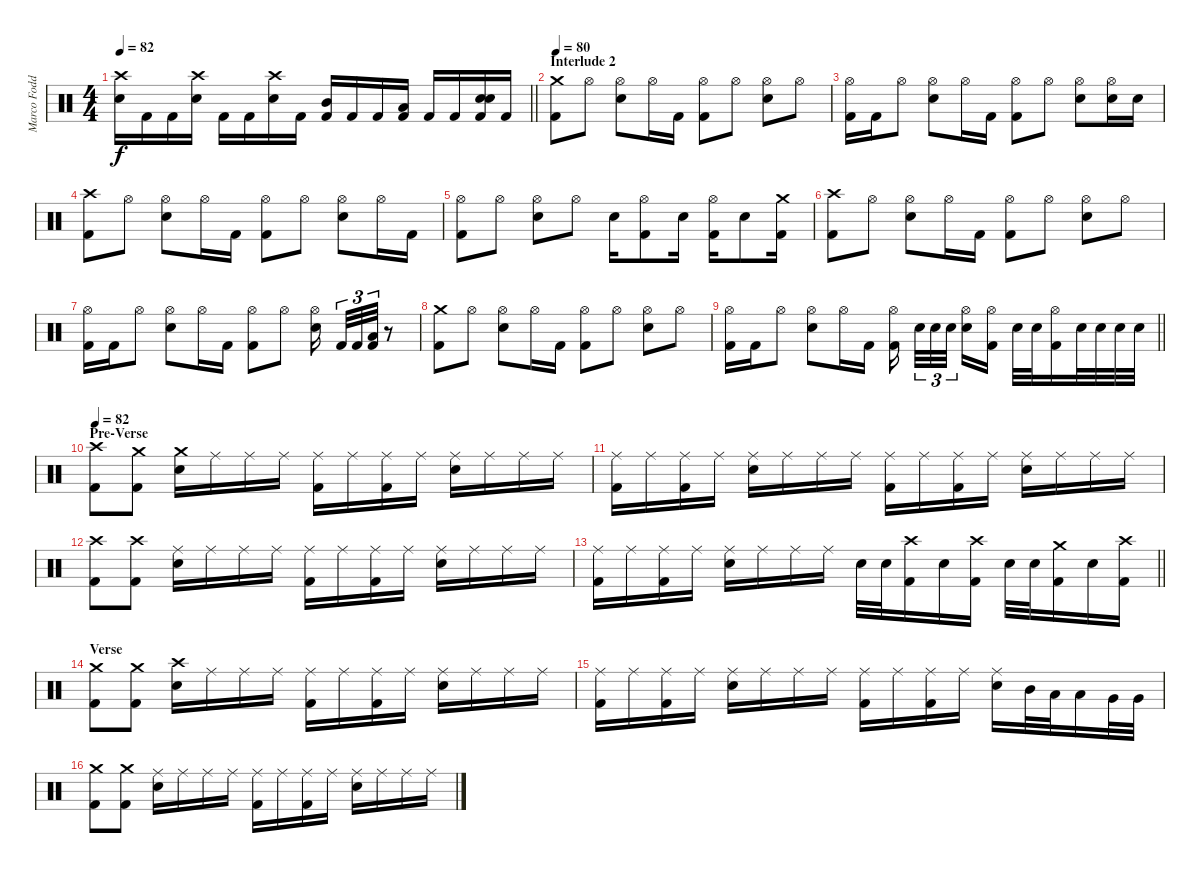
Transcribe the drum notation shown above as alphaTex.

\track ("Marco Foddis" "Marco Fodd") {instrument percussion}
\staff {score}
\articulation defaults
\ts (4 4)
\tempo 82
\clef neutral
\barLineRight lightlight
\ks c
("Crash high (hit)" "Electric Snare (hit)").16{dy f} "Kick (hit) 2".16 "Kick (hit) 2".16 ("Crash high (hit)" "Electric Snare (hit)").16 "Kick (hit) 2".16 "Kick (hit) 2".16 ("Crash high (hit)" "Electric Snare (hit)").16 "Kick (hit) 2".16 ("Mid Tom (hit)" "Kick (hit) 2").16 "Kick (hit) 2".16 "Kick (hit) 2".16 ("Low Tom (hit)" "Kick (hit) 2").16 "Kick (hit) 2".16 "Kick (hit) 2".16 ("Electric Snare (hit)" "Electric Snare (hit)" "Kick (hit) 2").16 "Kick (hit) 2".16 |
\section ("" "Interlude 2")
\tempo 80
("Crash medium (hit)" "Kick (hit) 2").8 "Hi-Hat (open)".8 ("Hi-Hat (open)" "Electric Snare (hit)").8 "Hi-Hat (open)".16 "Kick (hit) 2".16 ("Hi-Hat (open)" "Kick (hit) 2").8 "Hi-Hat (open)".8 ("Hi-Hat (open)" "Electric Snare (hit)").8 "Hi-Hat (open)".8 |
("Hi-Hat (open)" "Kick (hit) 2").16 "Kick (hit) 2".16 "Hi-Hat (open)".8 ("Hi-Hat (open)" "Electric Snare (hit)").8 "Hi-Hat (open)".16 "Kick (hit) 2".16 ("Hi-Hat (open)" "Kick (hit) 2").8 "Hi-Hat (open)".8 ("Hi-Hat (open)" "Electric Snare (hit)").8 ("Hi-Hat (open)" "Electric Snare (hit)").16 "Electric Snare (hit)".16 |
("Crash high (hit)" "Kick (hit) 2").8 "Hi-Hat (open)".8 ("Hi-Hat (open)" "Electric Snare (hit)").8 "Hi-Hat (open)".16 "Kick (hit) 2".16 ("Hi-Hat (open)" "Kick (hit) 2").8 "Hi-Hat (open)".8 ("Hi-Hat (open)" "Electric Snare (hit)").8 "Hi-Hat (open)".16 "Kick (hit) 2".16 |
("Hi-Hat (open)" "Kick (hit) 2").8 "Hi-Hat (open)".8 ("Hi-Hat (open)" "Electric Snare (hit)").8 "Hi-Hat (open)".8 "Electric Snare (hit)".16 ("Hi-Hat (open)" "Kick (hit) 2").8 "Electric Snare (hit)".16 ("Hi-Hat (open)" "Kick (hit) 2").16 "Electric Snare (hit)".8 ("Crash medium (hit)" "Kick (hit) 2").16 |
("Crash high (hit)" "Kick (hit) 2").8 "Hi-Hat (open)".8 ("Hi-Hat (open)" "Electric Snare (hit)").8 "Hi-Hat (open)".16 "Kick (hit) 2".16 ("Hi-Hat (open)" "Kick (hit) 2").8 "Hi-Hat (open)".8 ("Hi-Hat (open)" "Electric Snare (hit)").8 "Hi-Hat (open)".8 |
("Hi-Hat (open)" "Kick (hit) 2").16 "Kick (hit) 2".16 "Hi-Hat (open)".8 ("Hi-Hat (open)" "Electric Snare (hit)").8 "Hi-Hat (open)".16 "Kick (hit) 2".16 ("Hi-Hat (open)" "Kick (hit) 2").8 "Hi-Hat (open)".8 ("Hi-Hat (open)" "Electric Snare (hit)").16{beam splitsecondary} "Kick (hit) 2".32{tu (3 2)} "Kick (hit) 2".32{tu (3 2)} ("Low Tom (hit)" "Kick (hit) 2").32{tu (3 2)} r.8 |
("Crash medium (hit)" "Kick (hit) 2").8 "Hi-Hat (open)".8 ("Hi-Hat (open)" "Electric Snare (hit)").8 "Hi-Hat (open)".16 "Kick (hit) 2".16 ("Hi-Hat (open)" "Kick (hit) 2").8 "Hi-Hat (open)".8 ("Hi-Hat (open)" "Electric Snare (hit)").8 "Hi-Hat (open)".8 |
\barLineRight lightlight
("Hi-Hat (open)" "Kick (hit) 2").16 "Kick (hit) 2".16 "Hi-Hat (open)".8 ("Hi-Hat (open)" "Electric Snare (hit)").8 "Hi-Hat (open)".16 "Kick (hit) 2".16 ("Hi-Hat (open)" "Kick (hit) 2").16{beam splitsecondary} "Electric Snare (hit)".32{tu (3 2)} "Electric Snare (hit)".32{tu (3 2)} "Electric Snare (hit)".32{tu (3 2) beam splitsecondary} ("Hi-Hat (open)" "Electric Snare (hit)").16 ("Hi-Hat (open)" "Kick (hit) 2").16 "Electric Snare (hit)".32 "Electric Snare (hit)".32 ("Hi-Hat (open)" "Kick (hit) 2").16 "Electric Snare (hit)".32 "Electric Snare (hit)".32 "Electric Snare (hit)".32 "Electric Snare (hit)".32 |
\section ("" "Pre-Verse")
\tempo 82
("Crash high (hit)" "Kick (hit) 2").8 ("Crash medium (hit)" "Kick (hit) 2").8 ("Crash medium (hit)" "Electric Snare (hit)").16 "Ride (middle)".16 "Ride (middle)".16 "Ride (middle)".16 ("Ride (middle)" "Kick (hit) 2").16 "Ride (middle)".16 ("Ride (middle)" "Kick (hit) 2").16 "Ride (middle)".16 ("Ride (middle)" "Electric Snare (hit)").16 "Ride (middle)".16 "Ride (middle)".16 "Ride (middle)".16 |
("Ride (middle)" "Kick (hit) 2").16 "Ride (middle)".16 ("Ride (middle)" "Kick (hit) 2").16 "Ride (middle)".16 ("Ride (middle)" "Electric Snare (hit)").16 "Ride (middle)".16 "Ride (middle)".16 "Ride (middle)".16 ("Ride (middle)" "Kick (hit) 2").16 "Ride (middle)".16 ("Ride (middle)" "Kick (hit) 2").16 "Ride (middle)".16 ("Ride (middle)" "Electric Snare (hit)").16 "Ride (middle)".16 "Ride (middle)".16 "Ride (middle)".16 |
("Crash high (hit)" "Kick (hit) 2").8 ("Crash high (hit)" "Kick (hit) 2").8 ("Ride (middle)" "Electric Snare (hit)").16 "Ride (middle)".16 "Ride (middle)".16 "Ride (middle)".16 ("Ride (middle)" "Kick (hit) 2").16 "Ride (middle)".16 ("Ride (middle)" "Kick (hit) 2").16 "Ride (middle)".16 ("Ride (middle)" "Electric Snare (hit)").16 "Ride (middle)".16 "Ride (middle)".16 "Ride (middle)".16 |
\barLineRight lightlight
("Ride (middle)" "Kick (hit) 2").16 "Ride (middle)".16 ("Ride (middle)" "Kick (hit) 2").16 "Ride (middle)".16 ("Ride (middle)" "Electric Snare (hit)").16 "Ride (middle)".16 "Ride (middle)".16 "Ride (middle)".16 "Electric Snare (hit)".32 "Electric Snare (hit)".32 ("Crash high (hit)" "Kick (hit) 2").16 "Electric Snare (hit)".16 ("Crash high (hit)" "Kick (hit) 2").16 "Electric Snare (hit)".32 "Electric Snare (hit)".32 ("Crash medium (hit)" "Kick (hit) 2").16 "Electric Snare (hit)".16 ("Crash high (hit)" "Kick (hit) 2").16 |
\section ("" "Verse")
("Crash medium (hit)" "Kick (hit) 2").8 ("Crash medium (hit)" "Kick (hit) 2").8 ("Crash high (hit)" "Electric Snare (hit)").16 "Ride (middle)".16 "Ride (middle)".16 "Ride (middle)".16 ("Ride (middle)" "Kick (hit) 2").16 "Ride (middle)".16 ("Ride (middle)" "Kick (hit) 2").16 "Ride (middle)".16 ("Ride (middle)" "Electric Snare (hit)").16 "Ride (middle)".16 "Ride (middle)".16 "Ride (middle)".16 |
("Ride (middle)" "Kick (hit) 2").16 "Ride (middle)".16 ("Ride (middle)" "Kick (hit) 2").16 "Ride (middle)".16 ("Ride (middle)" "Electric Snare (hit)").16 "Ride (middle)".16 "Ride (middle)".16 "Ride (middle)".16 ("Ride (middle)" "Kick (hit) 2").16 "Ride (middle)".16 ("Ride (middle)" "Kick (hit) 2").16 "Ride (middle)".16 ("Ride (middle)" "Electric Snare (hit)").16 "Mid Tom (hit)".32 "Low Tom (hit)".32 "Low Tom (hit)".16 "Very Low Tom (hit)".32 "Very Low Tom (hit)".32 |
("Crash medium (hit)" "Kick (hit) 2").8 ("Crash medium (hit)" "Kick (hit) 2").8 ("Ride (middle)" "Electric Snare (hit)").16 "Ride (middle)".16 "Ride (middle)".16 "Ride (middle)".16 ("Ride (middle)" "Kick (hit) 2").16 "Ride (middle)".16 ("Ride (middle)" "Kick (hit) 2").16 "Ride (middle)".16 ("Ride (middle)" "Electric Snare (hit)").16 "Ride (middle)".16 "Ride (middle)".16 "Ride (middle)".16
